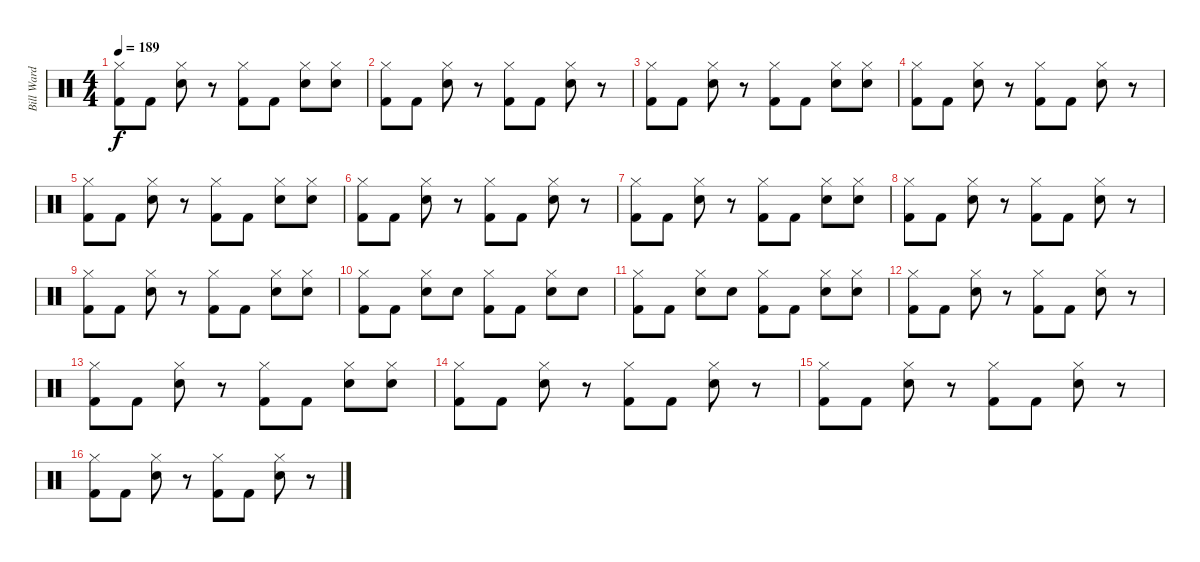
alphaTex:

\track ("Bill Ward" "Bill Ward") {instrument percussion}
\staff {score}
\articulation defaults
\ts (4 4)
\tempo 189
\clef neutral
\ks c
("Hi-Hat (closed)" "Kick (hit) 2").8{dy f} "Kick (hit) 2".8 ("Hi-Hat (closed)" "Electric Snare (hit)").8 r.8 ("Kick (hit) 2" "Hi-Hat (closed)").8 "Kick (hit) 2".8 ("Electric Snare (hit)" "Hi-Hat (closed)").8 ("Electric Snare (hit)" "Hi-Hat (closed)").8 |
("Hi-Hat (closed)" "Kick (hit) 2").8 "Kick (hit) 2".8 ("Hi-Hat (closed)" "Electric Snare (hit)").8 r.8 ("Hi-Hat (closed)" "Kick (hit) 2").8 "Kick (hit) 2".8 ("Hi-Hat (closed)" "Electric Snare (hit)").8 r.8 |
("Hi-Hat (closed)" "Kick (hit) 2").8 "Kick (hit) 2".8 ("Electric Snare (hit)" "Hi-Hat (closed)").8 r.8 ("Kick (hit) 2" "Hi-Hat (closed)").8 "Kick (hit) 2".8 ("Hi-Hat (closed)" "Electric Snare (hit)").8 ("Hi-Hat (closed)" "Electric Snare (hit)").8 |
("Kick (hit) 2" "Hi-Hat (closed)").8 "Kick (hit) 2".8 ("Hi-Hat (closed)" "Electric Snare (hit)").8 r.8 ("Hi-Hat (closed)" "Kick (hit) 2").8 "Kick (hit) 2".8 ("Hi-Hat (closed)" "Electric Snare (hit)").8 r.8 |
("Kick (hit) 2" "Hi-Hat (closed)").8 "Kick (hit) 2".8 ("Hi-Hat (closed)" "Electric Snare (hit)").8 r.8 ("Kick (hit) 2" "Hi-Hat (closed)").8 "Kick (hit) 2".8 ("Hi-Hat (closed)" "Electric Snare (hit)").8 ("Electric Snare (hit)" "Hi-Hat (closed)").8 |
("Kick (hit) 2" "Hi-Hat (closed)").8 "Kick (hit) 2".8 ("Hi-Hat (closed)" "Electric Snare (hit)").8 r.8 ("Hi-Hat (closed)" "Kick (hit) 2").8 "Kick (hit) 2".8 ("Hi-Hat (closed)" "Electric Snare (hit)").8 r.8 |
("Hi-Hat (closed)" "Kick (hit) 2").8 "Kick (hit) 2".8 ("Electric Snare (hit)" "Hi-Hat (closed)").8 r.8 ("Hi-Hat (closed)" "Kick (hit) 2").8 "Kick (hit) 2".8 ("Electric Snare (hit)" "Hi-Hat (closed)").8 ("Electric Snare (hit)" "Hi-Hat (closed)").8 |
("Hi-Hat (closed)" "Kick (hit) 2").8 "Kick (hit) 2".8 ("Hi-Hat (closed)" "Electric Snare (hit)").8 r.8 ("Kick (hit) 2" "Hi-Hat (closed)").8 "Kick (hit) 2".8 ("Hi-Hat (closed)" "Electric Snare (hit)").8 r.8 |
("Kick (hit) 2" "Hi-Hat (closed)").8 "Kick (hit) 2".8 ("Hi-Hat (closed)" "Electric Snare (hit)").8 r.8 ("Hi-Hat (closed)" "Kick (hit) 2").8 "Kick (hit) 2".8 ("Electric Snare (hit)" "Hi-Hat (closed)").8 ("Hi-Hat (closed)" "Electric Snare (hit)").8 |
("Hi-Hat (closed)" "Kick (hit) 2").8 "Kick (hit) 2".8 ("Electric Snare (hit)" "Hi-Hat (closed)").8 "Electric Snare (hit)".8 ("Kick (hit) 2" "Hi-Hat (closed)").8 "Kick (hit) 2".8 ("Electric Snare (hit)" "Hi-Hat (closed)").8 "Electric Snare (hit)".8 |
("Kick (hit) 2" "Hi-Hat (closed)").8 "Kick (hit) 2".8 ("Hi-Hat (closed)" "Electric Snare (hit)").8 "Electric Snare (hit)".8 ("Hi-Hat (closed)" "Kick (hit) 2").8 "Kick (hit) 2".8 ("Hi-Hat (closed)" "Electric Snare (hit)").8 ("Hi-Hat (closed)" "Electric Snare (hit)").8 |
("Kick (hit) 2" "Hi-Hat (closed)").8 "Kick (hit) 2".8 ("Hi-Hat (closed)" "Electric Snare (hit)").8 r.8 ("Hi-Hat (closed)" "Kick (hit) 2").8 "Kick (hit) 2".8 ("Hi-Hat (closed)" "Electric Snare (hit)").8 r.8 |
("Hi-Hat (closed)" "Kick (hit) 2").8 "Kick (hit) 2".8 ("Hi-Hat (closed)" "Electric Snare (hit)").8 r.8 ("Kick (hit) 2" "Hi-Hat (closed)").8 "Kick (hit) 2".8 ("Hi-Hat (closed)" "Electric Snare (hit)").8 ("Electric Snare (hit)" "Hi-Hat (closed)").8 |
("Kick (hit) 2" "Hi-Hat (closed)").8 "Kick (hit) 2".8 ("Electric Snare (hit)" "Hi-Hat (closed)").8 r.8 ("Hi-Hat (closed)" "Kick (hit) 2").8 "Kick (hit) 2".8 ("Hi-Hat (closed)" "Electric Snare (hit)").8 r.8 |
("Kick (hit) 2" "Hi-Hat (closed)").8 "Kick (hit) 2".8 ("Hi-Hat (closed)" "Electric Snare (hit)").8 r.8 ("Hi-Hat (closed)" "Kick (hit) 2").8 "Kick (hit) 2".8 ("Electric Snare (hit)" "Hi-Hat (closed)").8 r.8 |
("Hi-Hat (closed)" "Kick (hit) 2").8 "Kick (hit) 2".8 ("Hi-Hat (closed)" "Electric Snare (hit)").8 r.8 ("Hi-Hat (closed)" "Kick (hit) 2").8 "Kick (hit) 2".8 ("Hi-Hat (closed)" "Electric Snare (hit)").8 r.8
